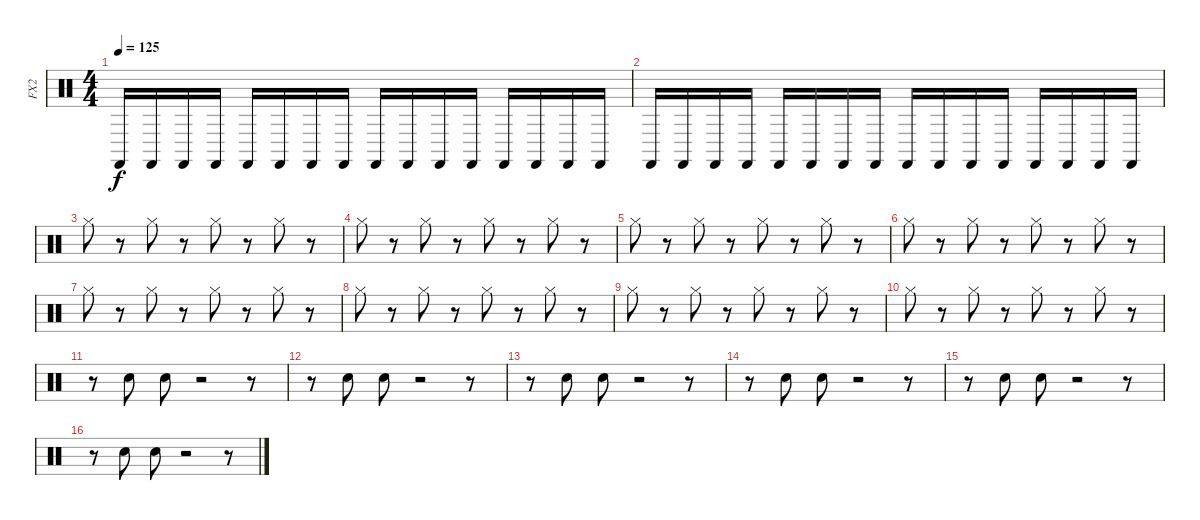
\track ("FX2" "FX2") {instrument percussion}
\staff {score}
\articulation defaults
\ts (4 4)
\tempo 125
\clef neutral
\ks c "Castanets (hit)".16{dy f} "Castanets (hit)".16 "Castanets (hit)".16 "Castanets (hit)".16 "Castanets (hit)".16 "Castanets (hit)".16 "Castanets (hit)".16 "Castanets (hit)".16 "Castanets (hit)".16 "Castanets (hit)".16 "Castanets (hit)".16 "Castanets (hit)".16 "Castanets (hit)".16 "Castanets (hit)".16 "Castanets (hit)".16 "Castanets (hit)".16
|
"Castanets (hit)".16 "Castanets (hit)".16 "Castanets (hit)".16 "Castanets (hit)".16 "Castanets (hit)".16 "Castanets (hit)".16 "Castanets (hit)".16 "Castanets (hit)".16 "Castanets (hit)".16 "Castanets (hit)".16 "Castanets (hit)".16 "Castanets (hit)".16 "Castanets (hit)".16 "Castanets (hit)".16 "Castanets (hit)".16 "Castanets (hit)".16 |
"Hi-Hat (closed)".8 r.8 "Hi-Hat (closed)".8 r.8 "Hi-Hat (closed)".8 r.8 "Hi-Hat (closed)".8 r.8 |
"Hi-Hat (closed)".8 r.8 "Hi-Hat (closed)".8 r.8 "Hi-Hat (closed)".8 r.8 "Hi-Hat (closed)".8 r.8 |
"Hi-Hat (closed)".8 r.8 "Hi-Hat (closed)".8 r.8 "Hi-Hat (closed)".8 r.8 "Hi-Hat (closed)".8 r.8 |
"Hi-Hat (closed)".8 r.8 "Hi-Hat (closed)".8 r.8 "Hi-Hat (closed)".8 r.8 "Hi-Hat (closed)".8 r.8 |
"Hi-Hat (closed)".8 r.8 "Hi-Hat (closed)".8 r.8 "Hi-Hat (closed)".8 r.8 "Hi-Hat (closed)".8 r.8 |
"Hi-Hat (closed)".8 r.8 "Hi-Hat (closed)".8 r.8 "Hi-Hat (closed)".8 r.8 "Hi-Hat (closed)".8 r.8 |
"Hi-Hat (closed)".8 r.8 "Hi-Hat (closed)".8 r.8 "Hi-Hat (closed)".8 r.8 "Hi-Hat (closed)".8 r.8 |
"Hi-Hat (closed)".8 r.8 "Hi-Hat (closed)".8 r.8 "Hi-Hat (closed)".8 r.8 "Hi-Hat (closed)".8 r.8 |
r.8 "Hand Clap (hit)".8 "Hand Clap (hit)".8 r.2 r.8 |
r.8 "Hand Clap (hit)".8 "Hand Clap (hit)".8 r.2 r.8 |
r.8 "Hand Clap (hit)".8 "Hand Clap (hit)".8 r.2 r.8 |
r.8 "Hand Clap (hit)".8 "Hand Clap (hit)".8 r.2 r.8 |
r.8 "Hand Clap (hit)".8 "Hand Clap (hit)".8 r.2 r.8 |
r.8 "Hand Clap (hit)".8 "Hand Clap (hit)".8 r.2 r.8
